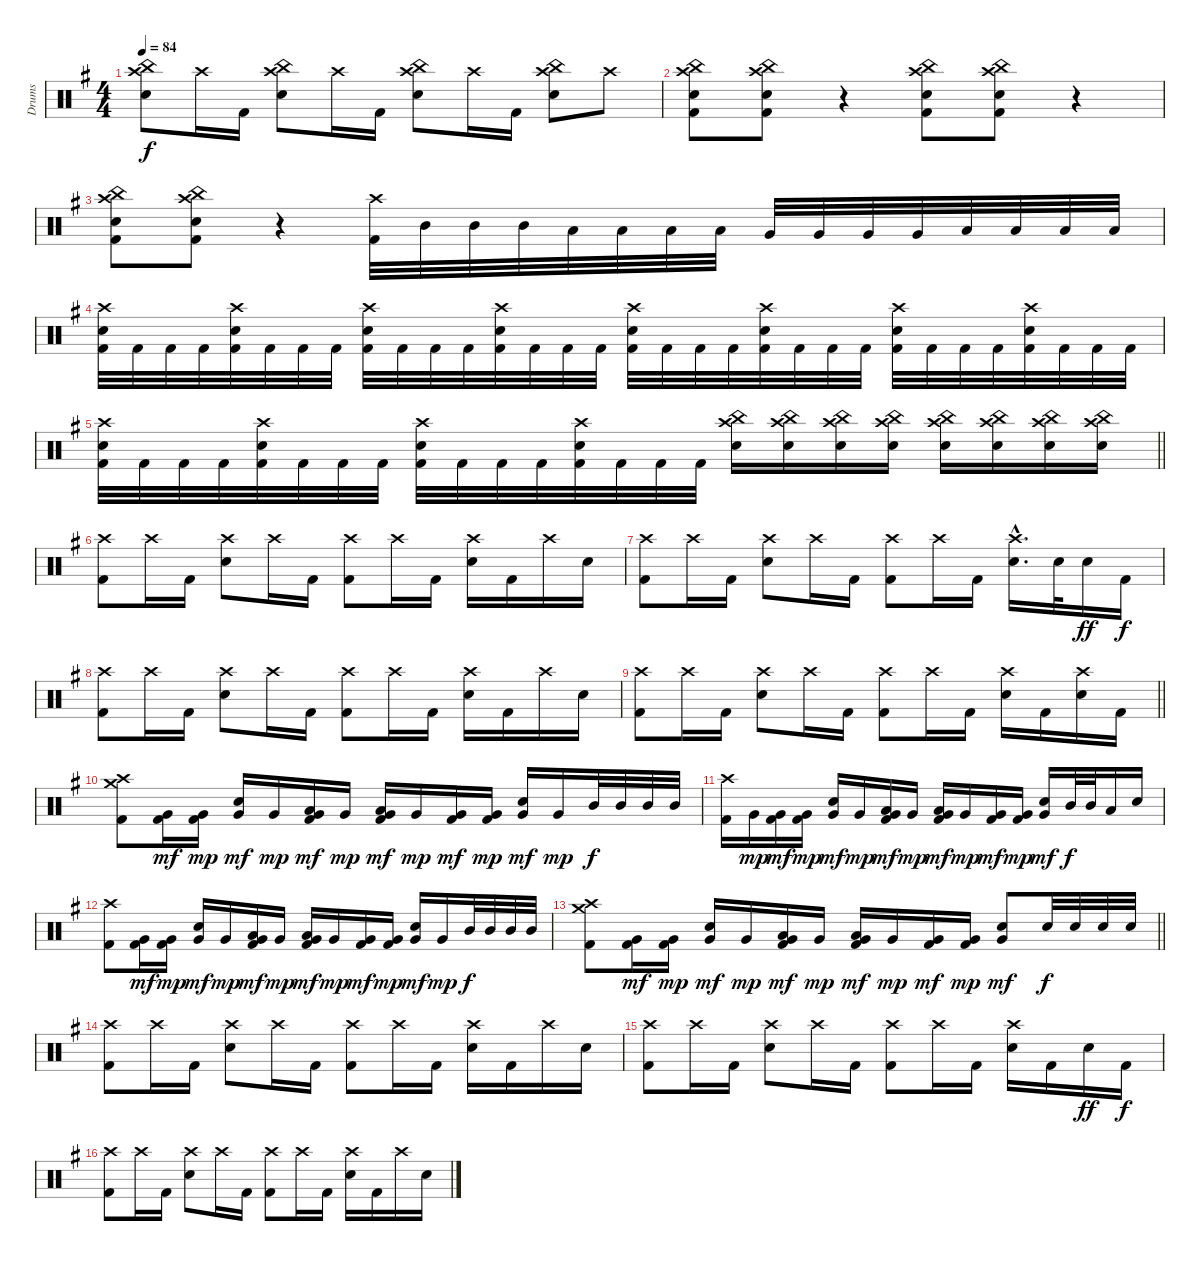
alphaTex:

\track ("Drums" "Drums") {instrument percussion}
\staff {score}
\articulation defaults
\ts (4 4)
\tempo 84
\clef neutral
\ks eminor
("China (hit)" "Crash high (hit)" "Snare (hit) 2").8{dy f} "Crash high (hit)".16 "Kick (hit) 2".16 ("China (hit)" "Crash high (hit)" "Snare (hit) 2").8 "Crash high (hit)".16 "Kick (hit) 2".16 ("China (hit)" "Crash high (hit)" "Snare (hit) 2").8 "Crash high (hit)".16 "Kick (hit) 2".16 ("China (hit)" "Crash high (hit)" "Snare (hit) 2").8 "Crash high (hit)".8 |
("China (hit)" "Crash high (hit)" "Snare (hit) 2" "Kick (hit) 2").8 ("China (hit)" "Crash high (hit)" "Snare (hit) 2" "Kick (hit) 2").8 r.4{volume 0} ("China (hit)" "Crash high (hit)" "Snare (hit) 2" "Kick (hit) 2").8{volume 16} ("China (hit)" "Crash high (hit)" "Snare (hit) 2" "Kick (hit) 2").8 r.4{volume 0} |
("China (hit)" "Crash high (hit)" "Snare (hit) 2" "Kick (hit) 2").8{volume 16} ("China (hit)" "Crash high (hit)" "Snare (hit) 2" "Kick (hit) 2").8 r.4{volume 0} ("Crash high (hit)" "Kick (hit) 2").32{volume 16} "Mid Tom (hit)".32 "Mid Tom (hit)".32 "Mid Tom (hit)".32 "Low Tom (hit)".32 "Low Tom (hit)".32 "Low Tom (hit)".32 "Low Tom (hit)".32 "Very Low Tom (hit)".32 "Very Low Tom (hit)".32 "Very Low Tom (hit)".32 "Very Low Tom (hit)".32 "Low Floor Tom (hit)".32 "Low Floor Tom (hit)".32 "Low Floor Tom (hit)".32 "Low Floor Tom (hit)".32 |
("Crash high (hit)" "Snare (hit) 2" "Kick (hit) 2").32 "Kick (hit) 2".32 "Kick (hit) 2".32 "Kick (hit) 2".32 ("Crash high (hit)" "Snare (hit) 2" "Kick (hit) 2").32 "Kick (hit) 2".32 "Kick (hit) 2".32 "Kick (hit) 2".32 ("Crash high (hit)" "Snare (hit) 2" "Kick (hit) 2").32 "Kick (hit) 2".32 "Kick (hit) 2".32 "Kick (hit) 2".32 ("Crash high (hit)" "Snare (hit) 2" "Kick (hit) 2").32 "Kick (hit) 2".32 "Kick (hit) 2".32 "Kick (hit) 2".32 ("Crash high (hit)" "Snare (hit) 2" "Kick (hit) 2").32 "Kick (hit) 2".32 "Kick (hit) 2".32 "Kick (hit) 2".32 ("Crash high (hit)" "Snare (hit) 2" "Kick (hit) 2").32 "Kick (hit) 2".32 "Kick (hit) 2".32 "Kick (hit) 2".32 ("Crash high (hit)" "Snare (hit) 2" "Kick (hit) 2").32 "Kick (hit) 2".32 "Kick (hit) 2".32 "Kick (hit) 2".32 ("Crash high (hit)" "Snare (hit) 2" "Kick (hit) 2").32 "Kick (hit) 2".32 "Kick (hit) 2".32 "Kick (hit) 2".32 |
\barLineRight lightlight
("Crash high (hit)" "Snare (hit) 2" "Kick (hit) 2").32 "Kick (hit) 2".32 "Kick (hit) 2".32 "Kick (hit) 2".32 ("Crash high (hit)" "Snare (hit) 2" "Kick (hit) 2").32 "Kick (hit) 2".32 "Kick (hit) 2".32 "Kick (hit) 2".32 ("Crash high (hit)" "Snare (hit) 2" "Kick (hit) 2").32 "Kick (hit) 2".32 "Kick (hit) 2".32 "Kick (hit) 2".32 ("Crash high (hit)" "Snare (hit) 2" "Kick (hit) 2").32 "Kick (hit) 2".32 "Kick (hit) 2".32 "Kick (hit) 2".32 ("China (hit)" "Crash high (hit)" "Snare (hit) 2").16 ("China (hit)" "Crash high (hit)" "Snare (hit) 2").16 ("China (hit)" "Crash high (hit)" "Snare (hit) 2").16 ("China (hit)" "Crash high (hit)" "Snare (hit) 2").16 ("China (hit)" "Crash high (hit)" "Snare (hit) 2").16 ("China (hit)" "Crash high (hit)" "Snare (hit) 2").16 ("China (hit)" "Crash high (hit)" "Snare (hit) 2").16 ("China (hit)" "Crash high (hit)" "Snare (hit) 2").16 |
("Crash high (hit)" "Kick (hit) 2").8 "Crash high (hit)".16 "Kick (hit) 2".16 ("Crash high (hit)" "Snare (hit) 2").8 "Crash high (hit)".16 "Kick (hit) 2".16 ("Crash high (hit)" "Kick (hit) 2").8 "Crash high (hit)".16 "Kick (hit) 2".16 ("Crash high (hit)" "Snare (hit) 2").16 "Kick (hit) 2".16 "Crash high (hit)".16 "Snare (hit) 2".16 |
("Crash high (hit)" "Kick (hit) 2").8 "Crash high (hit)".16 "Kick (hit) 2".16 ("Crash high (hit)" "Snare (hit) 2").8 "Crash high (hit)".16 "Kick (hit) 2".16 ("Crash high (hit)" "Kick (hit) 2").8 "Crash high (hit)".16 "Kick (hit) 2".16 ("Crash high (hit)"{hac} "Snare (hit) 2"{hac}).16{d} "Snare (hit) 2".32 "Snare (hit) 2".16{dy ff} "Kick (hit) 2".16{dy f} |
("Crash high (hit)" "Kick (hit) 2").8 "Crash high (hit)".16 "Kick (hit) 2".16 ("Crash high (hit)" "Snare (hit) 2").8 "Crash high (hit)".16 "Kick (hit) 2".16 ("Crash high (hit)" "Kick (hit) 2").8 "Crash high (hit)".16 "Kick (hit) 2".16 ("Crash high (hit)" "Snare (hit) 2").16 "Kick (hit) 2".16 "Crash high (hit)".16 "Snare (hit) 2".16 |
\barLineRight lightlight
("Crash high (hit)" "Kick (hit) 2").8 "Crash high (hit)".16 "Kick (hit) 2".16 ("Crash high (hit)" "Snare (hit) 2").8 "Crash high (hit)".16 "Kick (hit) 2".16 ("Crash high (hit)" "Kick (hit) 2").8 "Crash high (hit)".16 "Kick (hit) 2".16 ("Crash high (hit)" "Snare (hit) 2").16 "Kick (hit) 2".16 ("Crash high (hit)" "Snare (hit) 2").16 "Kick (hit) 2".16 |
("Crash high (hit)" "Crash medium (hit)" "Kick (hit) 2").8 ("Very Low Tom (hit)" "Kick (hit) 2").16{dy mf} ("Very Low Tom (hit)" "Kick (hit) 2").16{dy mp} ("Snare (hit) 2" "Very Low Tom (hit)").16{dy mf} "Very Low Tom (hit)".16{dy mp} ("Low Tom (hit)" "Very Low Tom (hit)" "Kick (hit) 2").16{dy mf} "Very Low Tom (hit)".16{dy mp} ("Low Tom (hit)" "Very Low Tom (hit)" "Kick (hit) 2").16{dy mf} "Very Low Tom (hit)".16{dy mp} ("Very Low Tom (hit)" "Kick (hit) 2").16{dy mf} ("Very Low Tom (hit)" "Kick (hit) 2").16{dy mp} ("Snare (hit) 2" "Very Low Tom (hit)").16{dy mf} "Very Low Tom (hit)".16{dy mp} "Mid Tom (hit)".32{dy f} "Mid Tom (hit)".32 "Mid Tom (hit)".32 "Mid Tom (hit)".32 |
("Crash high (hit)" "Kick (hit) 2").16 "Very Low Tom (hit)".16{dy mp} ("Very Low Tom (hit)" "Kick (hit) 2").16{dy mf} ("Very Low Tom (hit)" "Kick (hit) 2").16{dy mp} ("Snare (hit) 2" "Very Low Tom (hit)").16{dy mf} "Very Low Tom (hit)".16{dy mp} ("Low Tom (hit)" "Very Low Tom (hit)" "Kick (hit) 2").16{dy mf} "Very Low Tom (hit)".16{dy mp} ("Low Tom (hit)" "Very Low Tom (hit)" "Kick (hit) 2").16{dy mf} "Very Low Tom (hit)".16{dy mp} ("Very Low Tom (hit)" "Kick (hit) 2").16{dy mf} ("Very Low Tom (hit)" "Kick (hit) 2").16{dy mp} ("Snare (hit) 2" "Very Low Tom (hit)").16{dy mf} "Mid Tom (hit)".32{dy f} "Mid Tom (hit)".32 "Low Tom (hit)".16 "Snare (hit) 2".16 |
("Crash high (hit)" "Kick (hit) 2").8 ("Very Low Tom (hit)" "Kick (hit) 2").16{dy mf} ("Very Low Tom (hit)" "Kick (hit) 2").16{dy mp} ("Snare (hit) 2" "Very Low Tom (hit)").16{dy mf} "Very Low Tom (hit)".16{dy mp} ("Low Tom (hit)" "Very Low Tom (hit)" "Kick (hit) 2").16{dy mf} "Very Low Tom (hit)".16{dy mp} ("Low Tom (hit)" "Very Low Tom (hit)" "Kick (hit) 2").16{dy mf} "Very Low Tom (hit)".16{dy mp} ("Very Low Tom (hit)" "Kick (hit) 2").16{dy mf} ("Very Low Tom (hit)" "Kick (hit) 2").16{dy mp} ("Snare (hit) 2" "Very Low Tom (hit)").16{dy mf} "Very Low Tom (hit)".16{dy mp} "Mid Tom (hit)".32{dy f} "Mid Tom (hit)".32 "Mid Tom (hit)".32 "Mid Tom (hit)".32 |
\barLineRight lightlight
("Crash high (hit)" "Crash medium (hit)" "Kick (hit) 2").8 ("Very Low Tom (hit)" "Kick (hit) 2").16{dy mf} ("Very Low Tom (hit)" "Kick (hit) 2").16{dy mp} ("Snare (hit) 2" "Very Low Tom (hit)").16{dy mf} "Very Low Tom (hit)".16{dy mp} ("Low Tom (hit)" "Very Low Tom (hit)" "Kick (hit) 2").16{dy mf} "Very Low Tom (hit)".16{dy mp} ("Low Tom (hit)" "Very Low Tom (hit)" "Kick (hit) 2").16{dy mf} "Very Low Tom (hit)".16{dy mp} ("Very Low Tom (hit)" "Kick (hit) 2").16{dy mf} ("Very Low Tom (hit)" "Kick (hit) 2").16{dy mp} ("Snare (hit) 2" "Very Low Tom (hit)").8{dy mf} "Snare (hit) 2".32{dy f} "Snare (hit) 2".32 "Snare (hit) 2".32 "Snare (hit) 2".32 |
("Crash high (hit)" "Kick (hit) 2").8 "Crash high (hit)".16 "Kick (hit) 2".16 ("Crash high (hit)" "Snare (hit) 2").8 "Crash high (hit)".16 "Kick (hit) 2".16 ("Crash high (hit)" "Kick (hit) 2").8 "Crash high (hit)".16 "Kick (hit) 2".16 ("Crash high (hit)" "Snare (hit) 2").16 "Kick (hit) 2".16 "Crash high (hit)".16 "Snare (hit) 2".16 |
("Crash high (hit)" "Kick (hit) 2").8 "Crash high (hit)".16 "Kick (hit) 2".16 ("Crash high (hit)" "Snare (hit) 2").8 "Crash high (hit)".16 "Kick (hit) 2".16 ("Crash high (hit)" "Kick (hit) 2").8 "Crash high (hit)".16 "Kick (hit) 2".16 ("Crash high (hit)" "Snare (hit) 2").16 "Kick (hit) 2".16 "Snare (hit) 2".16{dy ff} "Kick (hit) 2".16{dy f} |
("Crash high (hit)" "Kick (hit) 2").8 "Crash high (hit)".16 "Kick (hit) 2".16 ("Crash high (hit)" "Snare (hit) 2").8 "Crash high (hit)".16 "Kick (hit) 2".16 ("Crash high (hit)" "Kick (hit) 2").8 "Crash high (hit)".16 "Kick (hit) 2".16 ("Crash high (hit)" "Snare (hit) 2").16 "Kick (hit) 2".16 "Crash high (hit)".16 "Snare (hit) 2".16
